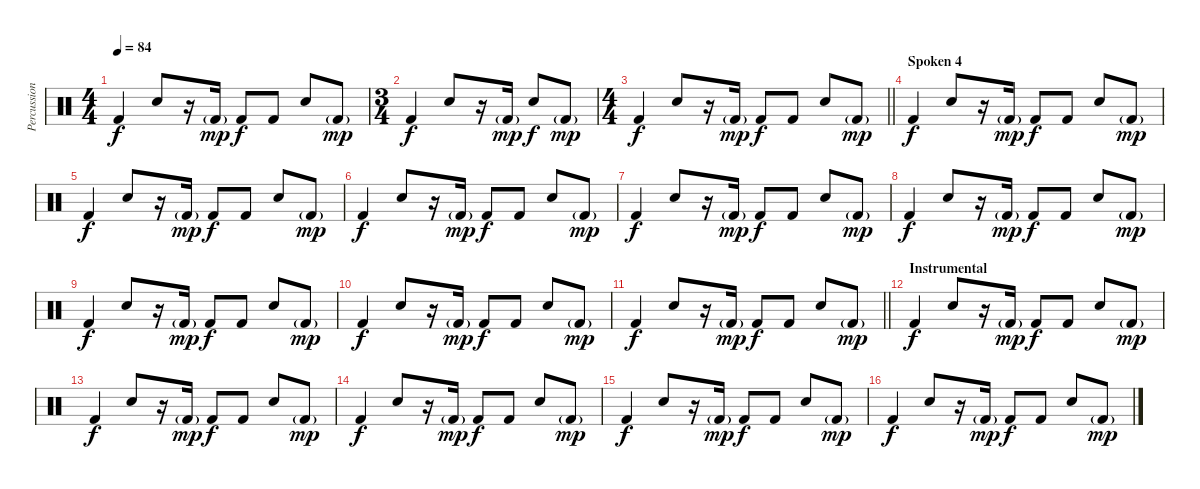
\track ("Percussion" "Percussion") {instrument percussion}
\staff {score}
\articulation defaults
\ts (4 4)
\tempo 84
\clef neutral
\ks c "Kick (hit) 2".4{dy f} "Snare (hit) 2".8
r.16 "Kick (hit) 2"{g}.16{dy mp} "Kick (hit) 2".8{dy f} "Kick (hit) 2".8 "Snare (hit) 2".8 "Kick (hit) 2"{g}.8{dy mp} |
\ts (3 4)
"Kick (hit) 2".4{dy f} "Snare (hit) 2".8 r.16 "Kick (hit) 2"{g}.16{dy mp} "Snare (hit) 2".8{dy f} "Kick (hit) 2"{g}.8{dy mp} |
\ts (4 4)
\barLineRight lightlight "Kick (hit) 2".4{dy f} "Snare (hit) 2".8
r.16 "Kick (hit) 2"{g}.16{dy mp} "Kick (hit) 2".8{dy f} "Kick (hit) 2".8 "Snare (hit) 2".8 "Kick (hit) 2"{g}.8{dy mp} |
\section ("" "Spoken 4")
"Kick (hit) 2".4{dy f} "Snare (hit) 2".8 r.16 "Kick (hit) 2"{g}.16{dy mp} "Kick (hit) 2".8{dy f} "Kick (hit) 2".8 "Snare (hit) 2".8 "Kick (hit) 2"{g}.8{dy mp} |
"Kick (hit) 2".4{dy f} "Snare (hit) 2".8 r.16 "Kick (hit) 2"{g}.16{dy mp} "Kick (hit) 2".8{dy f} "Kick (hit) 2".8 "Snare (hit) 2".8 "Kick (hit) 2"{g}.8{dy mp} |
"Kick (hit) 2".4{dy f} "Snare (hit) 2".8 r.16 "Kick (hit) 2"{g}.16{dy mp} "Kick (hit) 2".8{dy f} "Kick (hit) 2".8 "Snare (hit) 2".8 "Kick (hit) 2"{g}.8{dy mp} |
"Kick (hit) 2".4{dy f} "Snare (hit) 2".8 r.16 "Kick (hit) 2"{g}.16{dy mp} "Kick (hit) 2".8{dy f} "Kick (hit) 2".8 "Snare (hit) 2".8 "Kick (hit) 2"{g}.8{dy mp} |
"Kick (hit) 2".4{dy f} "Snare (hit) 2".8 r.16 "Kick (hit) 2"{g}.16{dy mp} "Kick (hit) 2".8{dy f} "Kick (hit) 2".8 "Snare (hit) 2".8 "Kick (hit) 2"{g}.8{dy mp} |
"Kick (hit) 2".4{dy f} "Snare (hit) 2".8 r.16 "Kick (hit) 2"{g}.16{dy mp} "Kick (hit) 2".8{dy f} "Kick (hit) 2".8 "Snare (hit) 2".8 "Kick (hit) 2"{g}.8{dy mp} |
"Kick (hit) 2".4{dy f} "Snare (hit) 2".8 r.16 "Kick (hit) 2"{g}.16{dy mp} "Kick (hit) 2".8{dy f} "Kick (hit) 2".8 "Snare (hit) 2".8 "Kick (hit) 2"{g}.8{dy mp} |
\barLineRight lightlight "Kick (hit) 2".4{dy f} "Snare (hit) 2".8
r.16 "Kick (hit) 2"{g}.16{dy mp} "Kick (hit) 2".8{dy f} "Kick (hit) 2".8 "Snare (hit) 2".8 "Kick (hit) 2"{g}.8{dy mp} |
\section ("" "Instrumental")
"Kick (hit) 2".4{dy f} "Snare (hit) 2".8 r.16 "Kick (hit) 2"{g}.16{dy mp} "Kick (hit) 2".8{dy f} "Kick (hit) 2".8 "Snare (hit) 2".8 "Kick (hit) 2"{g}.8{dy mp} |
"Kick (hit) 2".4{dy f} "Snare (hit) 2".8 r.16 "Kick (hit) 2"{g}.16{dy mp} "Kick (hit) 2".8{dy f} "Kick (hit) 2".8 "Snare (hit) 2".8 "Kick (hit) 2"{g}.8{dy mp} |
"Kick (hit) 2".4{dy f} "Snare (hit) 2".8 r.16 "Kick (hit) 2"{g}.16{dy mp} "Kick (hit) 2".8{dy f} "Kick (hit) 2".8 "Snare (hit) 2".8 "Kick (hit) 2"{g}.8{dy mp} |
"Kick (hit) 2".4{dy f} "Snare (hit) 2".8 r.16 "Kick (hit) 2"{g}.16{dy mp} "Kick (hit) 2".8{dy f} "Kick (hit) 2".8 "Snare (hit) 2".8 "Kick (hit) 2"{g}.8{dy mp} |
"Kick (hit) 2".4{dy f} "Snare (hit) 2".8 r.16 "Kick (hit) 2"{g}.16{dy mp} "Kick (hit) 2".8{dy f} "Kick (hit) 2".8 "Snare (hit) 2".8 "Kick (hit) 2"{g}.8{dy mp}
